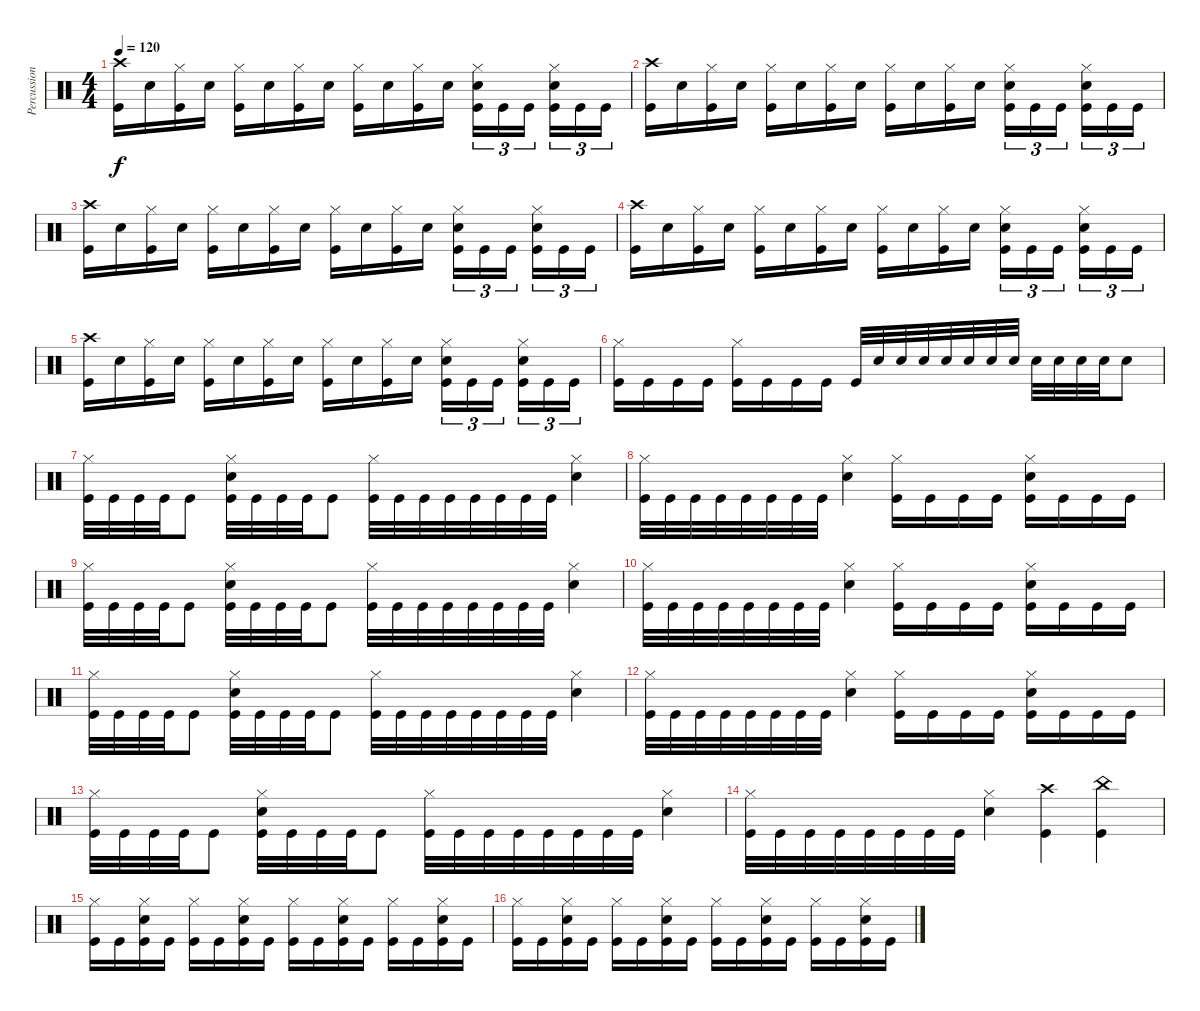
\track ("Percussion" "Percussion") {instrument percussion}
\staff {score}
\articulation defaults
\ts (4 4)
\tempo 120
\clef neutral
\ks c
("Crash high (hit)" "Kick (hit)").16{dy f} "Snare (hit) 2".16 ("Hi-Hat (closed)" "Kick (hit)").16 "Snare (hit) 2".16 ("Hi-Hat (closed)" "Kick (hit)").16 "Snare (hit) 2".16 ("Hi-Hat (closed)" "Kick (hit)").16 "Snare (hit) 2".16 ("Hi-Hat (closed)" "Kick (hit)").16 "Snare (hit) 2".16 ("Hi-Hat (closed)" "Kick (hit)").16 "Snare (hit) 2".16 ("Hi-Hat (closed)" "Snare (hit) 2" "Kick (hit)").16{tu (3 2)} "Kick (hit)".16{tu (3 2)} "Kick (hit)".16{tu (3 2) beam splitsecondary} ("Hi-Hat (closed)" "Snare (hit) 2" "Kick (hit)").16{tu (3 2)} "Kick (hit)".16{tu (3 2)} "Kick (hit)".16{tu (3 2)} |
("Crash high (hit)" "Kick (hit)").16 "Snare (hit) 2".16 ("Hi-Hat (closed)" "Kick (hit)").16 "Snare (hit) 2".16 ("Hi-Hat (closed)" "Kick (hit)").16 "Snare (hit) 2".16 ("Hi-Hat (closed)" "Kick (hit)").16 "Snare (hit) 2".16 ("Hi-Hat (closed)" "Kick (hit)").16 "Snare (hit) 2".16 ("Hi-Hat (closed)" "Kick (hit)").16 "Snare (hit) 2".16 ("Hi-Hat (closed)" "Snare (hit) 2" "Kick (hit)").16{tu (3 2)} "Kick (hit)".16{tu (3 2)} "Kick (hit)".16{tu (3 2) beam splitsecondary} ("Hi-Hat (closed)" "Snare (hit) 2" "Kick (hit)").16{tu (3 2)} "Kick (hit)".16{tu (3 2)} "Kick (hit)".16{tu (3 2)} |
("Crash high (hit)" "Kick (hit)").16 "Snare (hit) 2".16 ("Hi-Hat (closed)" "Kick (hit)").16 "Snare (hit) 2".16 ("Hi-Hat (closed)" "Kick (hit)").16 "Snare (hit) 2".16 ("Hi-Hat (closed)" "Kick (hit)").16 "Snare (hit) 2".16 ("Hi-Hat (closed)" "Kick (hit)").16 "Snare (hit) 2".16 ("Hi-Hat (closed)" "Kick (hit)").16 "Snare (hit) 2".16 ("Hi-Hat (closed)" "Snare (hit) 2" "Kick (hit)").16{tu (3 2)} "Kick (hit)".16{tu (3 2)} "Kick (hit)".16{tu (3 2) beam splitsecondary} ("Hi-Hat (closed)" "Snare (hit) 2" "Kick (hit)").16{tu (3 2)} "Kick (hit)".16{tu (3 2)} "Kick (hit)".16{tu (3 2)} |
("Crash high (hit)" "Kick (hit)").16 "Snare (hit) 2".16 ("Hi-Hat (closed)" "Kick (hit)").16 "Snare (hit) 2".16 ("Hi-Hat (closed)" "Kick (hit)").16 "Snare (hit) 2".16 ("Hi-Hat (closed)" "Kick (hit)").16 "Snare (hit) 2".16 ("Hi-Hat (closed)" "Kick (hit)").16 "Snare (hit) 2".16 ("Hi-Hat (closed)" "Kick (hit)").16 "Snare (hit) 2".16 ("Hi-Hat (closed)" "Snare (hit) 2" "Kick (hit)").16{tu (3 2)} "Kick (hit)".16{tu (3 2)} "Kick (hit)".16{tu (3 2) beam splitsecondary} ("Hi-Hat (closed)" "Snare (hit) 2" "Kick (hit)").16{tu (3 2)} "Kick (hit)".16{tu (3 2)} "Kick (hit)".16{tu (3 2)} |
("Crash high (hit)" "Kick (hit)").16 "Snare (hit) 2".16 ("Hi-Hat (closed)" "Kick (hit)").16 "Snare (hit) 2".16 ("Hi-Hat (closed)" "Kick (hit)").16 "Snare (hit) 2".16 ("Hi-Hat (closed)" "Kick (hit)").16 "Snare (hit) 2".16 ("Hi-Hat (closed)" "Kick (hit)").16 "Snare (hit) 2".16 ("Hi-Hat (closed)" "Kick (hit)").16 "Snare (hit) 2".16 ("Hi-Hat (closed)" "Snare (hit) 2" "Kick (hit)").16{tu (3 2)} "Kick (hit)".16{tu (3 2)} "Kick (hit)".16{tu (3 2) beam splitsecondary} ("Hi-Hat (closed)" "Snare (hit) 2" "Kick (hit)").16{tu (3 2)} "Kick (hit)".16{tu (3 2)} "Kick (hit)".16{tu (3 2)} |
("Hi-Hat (closed)" "Kick (hit)").16 "Kick (hit)".16 "Kick (hit)".16 "Kick (hit)".16 ("Hi-Hat (closed)" "Kick (hit)").16 "Kick (hit)".16 "Kick (hit)".16 "Kick (hit)".16 "Kick (hit)".32 "Snare (hit) 2".32 "Snare (hit) 2".32 "Snare (hit) 2".32 "Snare (hit) 2".32 "Snare (hit) 2".32 "Snare (hit) 2".32 "Snare (hit) 2".32 "Snare (hit) 2".32 "Snare (hit) 2".32 "Snare (hit) 2".32 "Snare (hit) 2".32 "Snare (hit) 2".8 |
("Hi-Hat (closed)" "Kick (hit)").32 "Kick (hit)".32 "Kick (hit)".32 "Kick (hit)".32 "Kick (hit)".8 ("Hi-Hat (closed)" "Snare (hit) 2" "Kick (hit)").32 "Kick (hit)".32 "Kick (hit)".32 "Kick (hit)".32 "Kick (hit)".8 ("Hi-Hat (closed)" "Kick (hit)").32 "Kick (hit)".32 "Kick (hit)".32 "Kick (hit)".32 "Kick (hit)".32 "Kick (hit)".32 "Kick (hit)".32 "Kick (hit)".32 ("Hi-Hat (closed)" "Snare (hit) 2").4 |
("Hi-Hat (closed)" "Kick (hit)").32 "Kick (hit)".32 "Kick (hit)".32 "Kick (hit)".32 "Kick (hit)".32 "Kick (hit)".32 "Kick (hit)".32 "Kick (hit)".32 ("Hi-Hat (closed)" "Snare (hit) 2").4 ("Hi-Hat (closed)" "Kick (hit)").16 "Kick (hit)".16 "Kick (hit)".16 "Kick (hit)".16 ("Hi-Hat (closed)" "Snare (hit) 2" "Kick (hit)").16 "Kick (hit)".16 "Kick (hit)".16 "Kick (hit)".16 |
("Hi-Hat (closed)" "Kick (hit)").32 "Kick (hit)".32 "Kick (hit)".32 "Kick (hit)".32 "Kick (hit)".8 ("Hi-Hat (closed)" "Snare (hit) 2" "Kick (hit)").32 "Kick (hit)".32 "Kick (hit)".32 "Kick (hit)".32 "Kick (hit)".8 ("Hi-Hat (closed)" "Kick (hit)").32 "Kick (hit)".32 "Kick (hit)".32 "Kick (hit)".32 "Kick (hit)".32 "Kick (hit)".32 "Kick (hit)".32 "Kick (hit)".32 ("Hi-Hat (closed)" "Snare (hit) 2").4 |
("Hi-Hat (closed)" "Kick (hit)").32 "Kick (hit)".32 "Kick (hit)".32 "Kick (hit)".32 "Kick (hit)".32 "Kick (hit)".32 "Kick (hit)".32 "Kick (hit)".32 ("Hi-Hat (closed)" "Snare (hit) 2").4 ("Hi-Hat (closed)" "Kick (hit)").16 "Kick (hit)".16 "Kick (hit)".16 "Kick (hit)".16 ("Hi-Hat (closed)" "Snare (hit) 2" "Kick (hit)").16 "Kick (hit)".16 "Kick (hit)".16 "Kick (hit)".16 |
("Hi-Hat (closed)" "Kick (hit)").32 "Kick (hit)".32 "Kick (hit)".32 "Kick (hit)".32 "Kick (hit)".8 ("Hi-Hat (closed)" "Snare (hit) 2" "Kick (hit)").32 "Kick (hit)".32 "Kick (hit)".32 "Kick (hit)".32 "Kick (hit)".8 ("Hi-Hat (closed)" "Kick (hit)").32 "Kick (hit)".32 "Kick (hit)".32 "Kick (hit)".32 "Kick (hit)".32 "Kick (hit)".32 "Kick (hit)".32 "Kick (hit)".32 ("Hi-Hat (closed)" "Snare (hit) 2").4 |
("Hi-Hat (closed)" "Kick (hit)").32 "Kick (hit)".32 "Kick (hit)".32 "Kick (hit)".32 "Kick (hit)".32 "Kick (hit)".32 "Kick (hit)".32 "Kick (hit)".32 ("Hi-Hat (closed)" "Snare (hit) 2").4 ("Hi-Hat (closed)" "Kick (hit)").16 "Kick (hit)".16 "Kick (hit)".16 "Kick (hit)".16 ("Hi-Hat (closed)" "Snare (hit) 2" "Kick (hit)").16 "Kick (hit)".16 "Kick (hit)".16 "Kick (hit)".16 |
("Hi-Hat (closed)" "Kick (hit)").32 "Kick (hit)".32 "Kick (hit)".32 "Kick (hit)".32 "Kick (hit)".8 ("Hi-Hat (closed)" "Snare (hit) 2" "Kick (hit)").32 "Kick (hit)".32 "Kick (hit)".32 "Kick (hit)".32 "Kick (hit)".8 ("Hi-Hat (closed)" "Kick (hit)").32 "Kick (hit)".32 "Kick (hit)".32 "Kick (hit)".32 "Kick (hit)".32 "Kick (hit)".32 "Kick (hit)".32 "Kick (hit)".32 ("Hi-Hat (closed)" "Snare (hit) 2").4 |
("Hi-Hat (closed)" "Kick (hit)").32 "Kick (hit)".32 "Kick (hit)".32 "Kick (hit)".32 "Kick (hit)".32 "Kick (hit)".32 "Kick (hit)".32 "Kick (hit)".32 ("Hi-Hat (closed)" "Snare (hit) 2").4 ("Crash high (hit)" "Kick (hit)").4 ("China (hit)" "Kick (hit)").4 |
("Hi-Hat (closed)" "Kick (hit)").16 "Kick (hit)".16 ("Hi-Hat (closed)" "Snare (hit) 2" "Kick (hit)").16 "Kick (hit)".16 ("Hi-Hat (closed)" "Kick (hit)").16 "Kick (hit)".16 ("Hi-Hat (closed)" "Snare (hit) 2" "Kick (hit)").16 "Kick (hit)".16 ("Hi-Hat (closed)" "Kick (hit)").16 "Kick (hit)".16 ("Hi-Hat (closed)" "Snare (hit) 2" "Kick (hit)").16 "Kick (hit)".16 ("Hi-Hat (closed)" "Kick (hit)").16 "Kick (hit)".16 ("Hi-Hat (closed)" "Snare (hit) 2" "Kick (hit)").16 "Kick (hit)".16 |
("Hi-Hat (closed)" "Kick (hit)").16 "Kick (hit)".16 ("Hi-Hat (closed)" "Snare (hit) 2" "Kick (hit)").16 "Kick (hit)".16 ("Hi-Hat (closed)" "Kick (hit)").16 "Kick (hit)".16 ("Hi-Hat (closed)" "Snare (hit) 2" "Kick (hit)").16 "Kick (hit)".16 ("Hi-Hat (closed)" "Kick (hit)").16 "Kick (hit)".16 ("Hi-Hat (closed)" "Snare (hit) 2" "Kick (hit)").16 "Kick (hit)".16 ("Hi-Hat (closed)" "Kick (hit)").16 "Kick (hit)".16 ("Hi-Hat (closed)" "Snare (hit) 2" "Kick (hit)").16 "Kick (hit)".16
